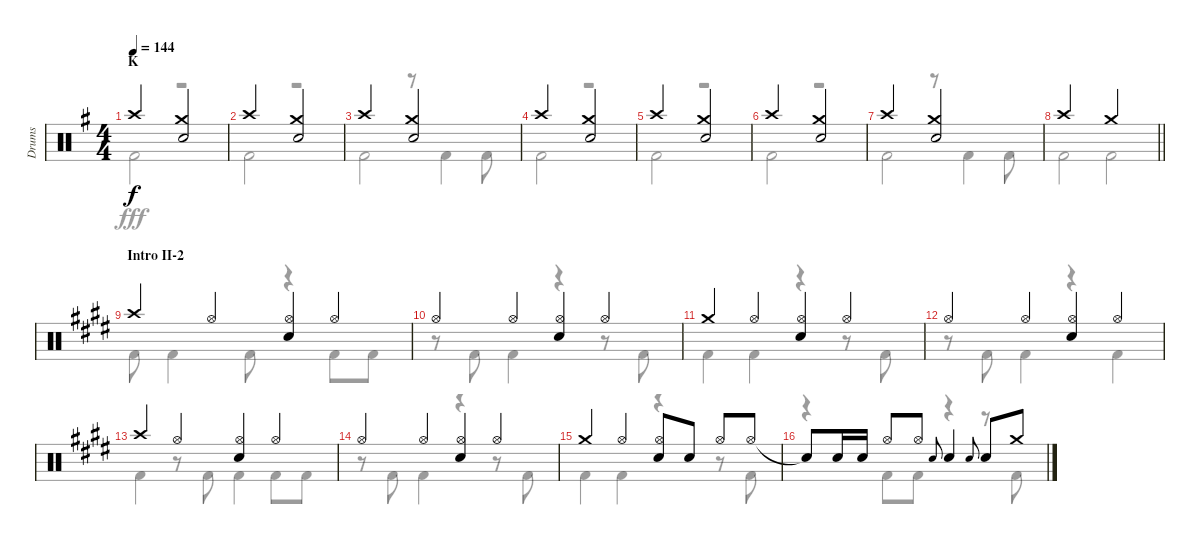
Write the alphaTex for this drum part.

\track ("Drums" "Drums") {instrument percussion}
\staff {score}
\articulation defaults
\voice
\ts (4 4)
\section ("" "K")
\tempo 144
\clef neutral
\ks g "Crash high (hit)".2{dy f}
("Crash medium (hit)" "Snare (hit) 2").2 |
"Crash high (hit)".2 ("Crash medium (hit)" "Snare (hit) 2").2 |
"Crash high (hit)".2 ("Crash medium (hit)" "Snare (hit) 2").2 |
"Crash high (hit)".2 ("Crash medium (hit)" "Snare (hit) 2").2 |
"Crash high (hit)".2 ("Crash medium (hit)" "Snare (hit) 2").2 |
"Crash high (hit)".2 ("Crash medium (hit)" "Snare (hit) 2").2 |
"Crash high (hit)".2 ("Crash medium (hit)" "Snare (hit) 2").2 |
\barLineRight lightlight "Crash high (hit)".2 "Crash medium (hit)".2
|
\section ("" "Intro II-2")
\ks e "Crash high (hit)".4 "Hi-Hat (open)".4
("Hi-Hat (open)" "Snare (hit) 2").4 "Hi-Hat (open)".4 |
"Hi-Hat (open)".4 "Hi-Hat (open)".4 ("Hi-Hat (open)" "Snare (hit) 2").4 "Hi-Hat (open)".4 |
"Crash medium (hit)".4 "Hi-Hat (open)".4 ("Hi-Hat (open)" "Snare (hit) 2").4 "Hi-Hat (open)".4 |
"Hi-Hat (open)".4 "Hi-Hat (open)".4 ("Hi-Hat (open)" "Snare (hit) 2").4 "Hi-Hat (open)".4 |
"Crash high (hit)".4 "Hi-Hat (open)".4 ("Hi-Hat (open)" "Snare (hit) 2").4 "Hi-Hat (open)".4 |
"Hi-Hat (open)".4 "Hi-Hat (open)".4 ("Hi-Hat (open)" "Snare (hit) 2").4 "Hi-Hat (open)".4 |
"Crash medium (hit)".4 "Hi-Hat (open)".4 ("Hi-Hat (open)" "Snare (hit) 2").8 "Snare (hit) 2".8 "Hi-Hat (open)".8 "Hi-Hat (open)".8 |
"Snare (hit)"{t}.8 "Snare (hit) 2".16 "Snare (hit) 2".16 "Hi-Hat (open)".8 "Hi-Hat (open)".8 "Snare (hit) 2".8{gr onbeat} "Snare (hit) 2".4 "Snare (hit) 2".8{gr onbeat} "Snare (hit) 2".8 "Crash medium (hit)".8
\voice
\clef neutral
\ottava regular
\simile none
\ks g "Kick (hit) 2".2{dy fff}
r.2 |
"Kick (hit) 2".2 r.2 |
"Kick (hit) 2".2 r.8 "Kick (hit) 2".4 "Kick (hit) 2".8 |
"Kick (hit) 2".2 r.2 |
"Kick (hit) 2".2 r.2 |
"Kick (hit) 2".2 r.2 |
"Kick (hit) 2".2 r.8 "Kick (hit) 2".4 "Kick (hit) 2".8 |
\barLineRight lightlight "Kick (hit) 2".2 "Kick (hit) 2".2
|
\ks e "Kick (hit) 2".8 "Kick (hit) 2".4 "Kick (hit) 2".8
r.4 "Kick (hit) 2".8 "Kick (hit) 2".8 |
r.8 "Kick (hit) 2".8 "Kick (hit) 2".4 r.4 r.8 "Kick (hit) 2".8 |
"Kick (hit) 2".4 "Kick (hit) 2".4 r.4 r.8 "Kick (hit) 2".8 |
r.8 "Kick (hit) 2".8 "Kick (hit) 2".4 r.4 "Kick (hit) 2".4 |
"Kick (hit) 2".4 r.8 "Kick (hit) 2".8 "Kick (hit) 2".4 "Kick (hit) 2".8 "Kick (hit) 2".8 |
r.8 "Kick (hit) 2".8 "Kick (hit) 2".4 r.4 r.8 "Kick (hit) 2".8 |
"Kick (hit) 2".4 "Kick (hit) 2".4 r.4 r.8 "Kick (hit) 2".8 |
r.4 "Kick (hit) 2".8 "Kick (hit) 2".8 r.4 r.8 "Kick (hit) 2".8
